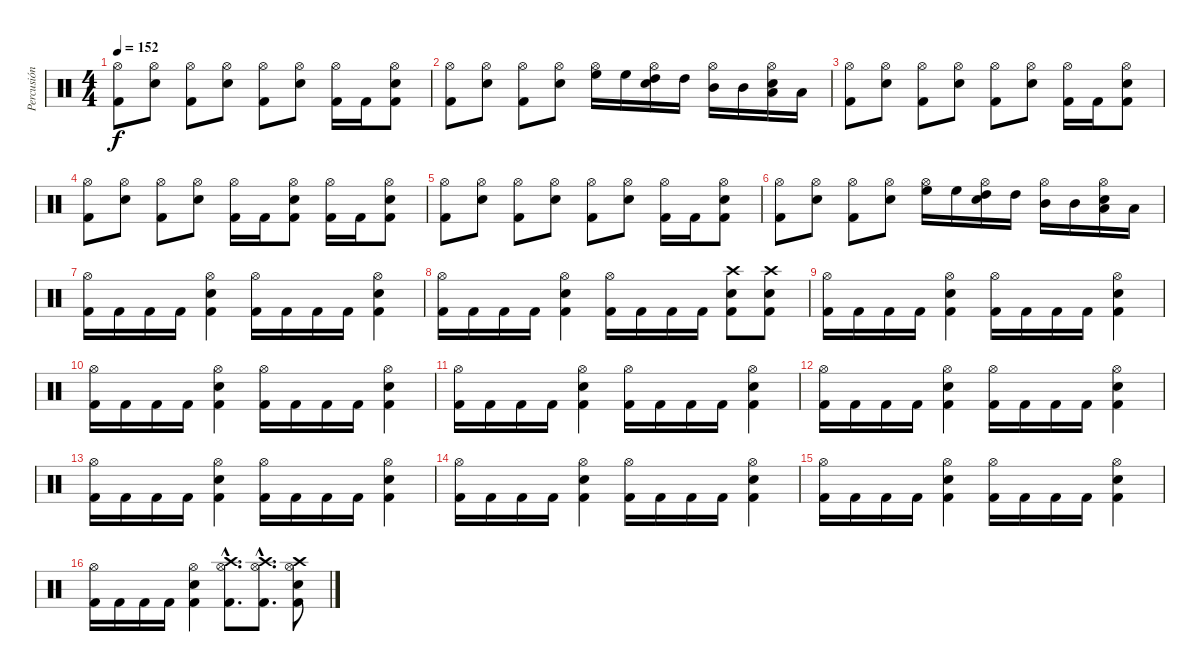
\track ("Percusión" "Percusión") {instrument percussion}
\staff {score}
\articulation defaults
\ts (4 4)
\tempo 152
\clef neutral
\ks c
("Hi-Hat (open)" "Kick (hit) 2").8{dy f} ("Hi-Hat (open)" "Snare (hit) 2").8 ("Hi-Hat (open)" "Kick (hit) 2").8 ("Hi-Hat (open)" "Snare (hit) 2").8 ("Hi-Hat (open)" "Kick (hit) 2").8 ("Hi-Hat (open)" "Snare (hit) 2").8 ("Hi-Hat (open)" "Kick (hit) 2").16 "Kick (hit) 2".16 ("Hi-Hat (open)" "Snare (hit) 2" "Kick (hit) 2").8 |
("Hi-Hat (open)" "Kick (hit) 2").8 ("Hi-Hat (open)" "Snare (hit) 2").8 ("Hi-Hat (open)" "Kick (hit) 2").8 ("Hi-Hat (open)" "Snare (hit) 2").8 ("Hi-Hat (open)" "High Floor Tom (hit)").16 "High Floor Tom (hit)".16 ("Hi-Hat (open)" "Snare (hit) 2" "High Tom (hit)").16 "High Tom (hit)".16 ("Hi-Hat (open)" "Mid Tom (hit)").16 "Mid Tom (hit)".16 ("Hi-Hat (open)" "Snare (hit) 2" "Low Tom (hit)").16 "Low Tom (hit)".16 |
("Hi-Hat (open)" "Kick (hit) 2").8 ("Hi-Hat (open)" "Snare (hit) 2").8 ("Hi-Hat (open)" "Kick (hit) 2").8 ("Hi-Hat (open)" "Snare (hit) 2").8 ("Hi-Hat (open)" "Kick (hit) 2").8 ("Hi-Hat (open)" "Snare (hit) 2").8 ("Hi-Hat (open)" "Kick (hit) 2").16 "Kick (hit) 2".16 ("Hi-Hat (open)" "Snare (hit) 2" "Kick (hit) 2").8 |
("Hi-Hat (open)" "Kick (hit) 2").8 ("Hi-Hat (open)" "Snare (hit) 2").8 ("Hi-Hat (open)" "Kick (hit) 2").8 ("Hi-Hat (open)" "Snare (hit) 2").8 ("Hi-Hat (open)" "Kick (hit) 2").16 "Kick (hit) 2".16 ("Hi-Hat (open)" "Snare (hit) 2" "Kick (hit) 2").8 ("Hi-Hat (open)" "Kick (hit) 2").16 "Kick (hit) 2".16 ("Hi-Hat (open)" "Snare (hit) 2" "Kick (hit) 2").8 |
("Hi-Hat (open)" "Kick (hit) 2").8 ("Hi-Hat (open)" "Snare (hit) 2").8 ("Hi-Hat (open)" "Kick (hit) 2").8 ("Hi-Hat (open)" "Snare (hit) 2").8 ("Hi-Hat (open)" "Kick (hit) 2").8 ("Hi-Hat (open)" "Snare (hit) 2").8 ("Hi-Hat (open)" "Kick (hit) 2").16 "Kick (hit) 2".16 ("Hi-Hat (open)" "Snare (hit) 2" "Kick (hit) 2").8 |
("Hi-Hat (open)" "Kick (hit) 2").8 ("Hi-Hat (open)" "Snare (hit) 2").8 ("Hi-Hat (open)" "Kick (hit) 2").8 ("Hi-Hat (open)" "Snare (hit) 2").8 ("Hi-Hat (open)" "High Floor Tom (hit)").16 "High Floor Tom (hit)".16 ("Hi-Hat (open)" "Snare (hit) 2" "High Tom (hit)").16 "High Tom (hit)".16 ("Hi-Hat (open)" "Mid Tom (hit)").16 "Mid Tom (hit)".16 ("Hi-Hat (open)" "Snare (hit) 2" "Low Tom (hit)").16 "Low Tom (hit)".16 |
("Hi-Hat (open)" "Kick (hit) 2").16 "Kick (hit) 2".16 "Kick (hit) 2".16 "Kick (hit) 2".16 ("Hi-Hat (open)" "Snare (hit) 2" "Kick (hit) 2").4 ("Hi-Hat (open)" "Kick (hit) 2").16 "Kick (hit) 2".16 "Kick (hit) 2".16 "Kick (hit) 2".16 ("Hi-Hat (open)" "Snare (hit) 2" "Kick (hit) 2").4 |
("Hi-Hat (open)" "Kick (hit) 2").16 "Kick (hit) 2".16 "Kick (hit) 2".16 "Kick (hit) 2".16 ("Hi-Hat (open)" "Snare (hit) 2" "Kick (hit) 2").4 ("Hi-Hat (open)" "Kick (hit) 2").16 "Kick (hit) 2".16 "Kick (hit) 2".16 "Kick (hit) 2".16 ("Crash high (hit)" "Snare (hit) 2" "Kick (hit) 2").8 ("Crash high (hit)" "Snare (hit) 2" "Kick (hit) 2").8 |
("Hi-Hat (open)" "Kick (hit) 2").16 "Kick (hit) 2".16 "Kick (hit) 2".16 "Kick (hit) 2".16 ("Hi-Hat (open)" "Snare (hit) 2" "Kick (hit) 2").4 ("Hi-Hat (open)" "Kick (hit) 2").16 "Kick (hit) 2".16 "Kick (hit) 2".16 "Kick (hit) 2".16 ("Hi-Hat (open)" "Snare (hit) 2" "Kick (hit) 2").4 |
("Hi-Hat (open)" "Kick (hit) 2").16 "Kick (hit) 2".16 "Kick (hit) 2".16 "Kick (hit) 2".16 ("Hi-Hat (open)" "Snare (hit) 2" "Kick (hit) 2").4 ("Hi-Hat (open)" "Kick (hit) 2").16 "Kick (hit) 2".16 "Kick (hit) 2".16 "Kick (hit) 2".16 ("Hi-Hat (open)" "Snare (hit) 2" "Kick (hit) 2").4 |
("Hi-Hat (open)" "Kick (hit) 2").16 "Kick (hit) 2".16 "Kick (hit) 2".16 "Kick (hit) 2".16 ("Hi-Hat (open)" "Snare (hit) 2" "Kick (hit) 2").4 ("Hi-Hat (open)" "Kick (hit) 2").16 "Kick (hit) 2".16 "Kick (hit) 2".16 "Kick (hit) 2".16 ("Hi-Hat (open)" "Snare (hit) 2" "Kick (hit) 2").4 |
("Hi-Hat (open)" "Kick (hit) 2").16 "Kick (hit) 2".16 "Kick (hit) 2".16 "Kick (hit) 2".16 ("Hi-Hat (open)" "Snare (hit) 2" "Kick (hit) 2").4 ("Hi-Hat (open)" "Kick (hit) 2").16 "Kick (hit) 2".16 "Kick (hit) 2".16 "Kick (hit) 2".16 ("Hi-Hat (open)" "Snare (hit) 2" "Kick (hit) 2").4 |
("Hi-Hat (open)" "Kick (hit) 2").16 "Kick (hit) 2".16 "Kick (hit) 2".16 "Kick (hit) 2".16 ("Hi-Hat (open)" "Snare (hit) 2" "Kick (hit) 2").4 ("Hi-Hat (open)" "Kick (hit) 2").16 "Kick (hit) 2".16 "Kick (hit) 2".16 "Kick (hit) 2".16 ("Hi-Hat (open)" "Snare (hit) 2" "Kick (hit) 2").4 |
("Hi-Hat (open)" "Kick (hit) 2").16 "Kick (hit) 2".16 "Kick (hit) 2".16 "Kick (hit) 2".16 ("Hi-Hat (open)" "Snare (hit) 2" "Kick (hit) 2").4 ("Hi-Hat (open)" "Kick (hit) 2").16 "Kick (hit) 2".16 "Kick (hit) 2".16 "Kick (hit) 2".16 ("Hi-Hat (open)" "Snare (hit) 2" "Kick (hit) 2").4 |
("Hi-Hat (open)" "Kick (hit) 2").16 "Kick (hit) 2".16 "Kick (hit) 2".16 "Kick (hit) 2".16 ("Hi-Hat (open)" "Snare (hit) 2" "Kick (hit) 2").4 ("Hi-Hat (open)" "Kick (hit) 2").16 "Kick (hit) 2".16 "Kick (hit) 2".16 "Kick (hit) 2".16 ("Hi-Hat (open)" "Snare (hit) 2" "Kick (hit) 2").4 |
("Hi-Hat (open)" "Kick (hit) 2").16 "Kick (hit) 2".16 "Kick (hit) 2".16 "Kick (hit) 2".16 ("Hi-Hat (open)" "Snare (hit) 2" "Kick (hit) 2").4 ("Crash high (hit)"{hac} "Hi-Hat (open)"{hac} "Kick (hit) 2"{hac}).8{d} ("Crash high (hit)"{hac} "Hi-Hat (open)"{hac} "Kick (hit) 2"{hac}).8{d} ("Crash high (hit)" "Hi-Hat (open)" "Snare (hit) 2" "Kick (hit) 2").8
